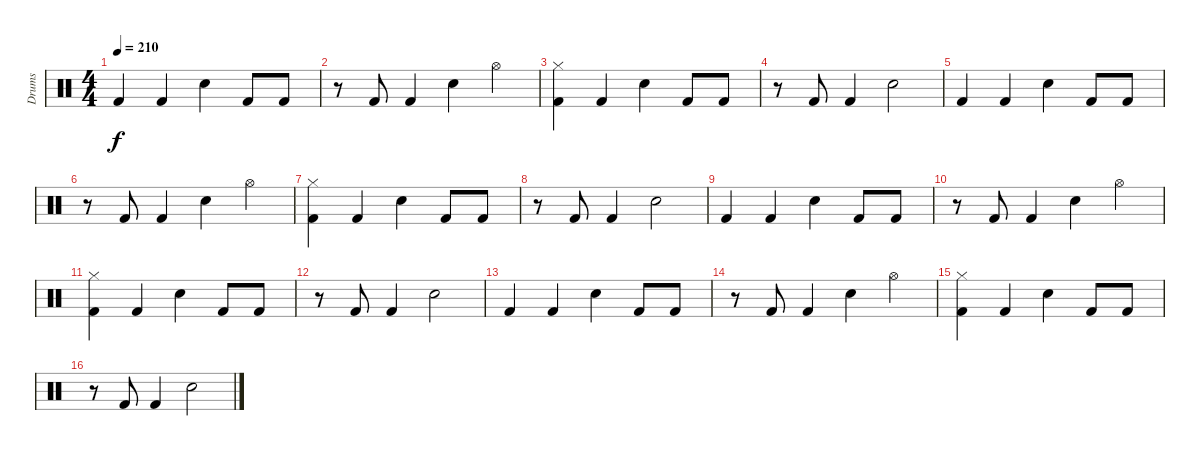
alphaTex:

\track ("Drums" "Drums") {instrument percussion}
\staff {score}
\articulation defaults
\ts (4 4)
\tempo 210
\clef neutral
\ks c "Kick (hit) 2".4{dy f} "Kick (hit) 2".4 "Electric Snare (hit)".4 "Kick (hit) 2".8 "Kick (hit) 2".8
|
r.8 "Kick (hit) 2".8 "Kick (hit) 2".4 "Electric Snare (hit)".4 "Hi-Hat (open)".4 |
("Kick (hit) 2" "Hi-Hat (closed)").4 "Kick (hit) 2".4 "Electric Snare (hit)".4 "Kick (hit) 2".8 "Kick (hit) 2".8 |
r.8 "Kick (hit) 2".8 "Kick (hit) 2".4 "Electric Snare (hit)".2 |
"Kick (hit) 2".4 "Kick (hit) 2".4 "Electric Snare (hit)".4 "Kick (hit) 2".8 "Kick (hit) 2".8 |
r.8 "Kick (hit) 2".8 "Kick (hit) 2".4 "Electric Snare (hit)".4 "Hi-Hat (open)".4 |
("Kick (hit) 2" "Hi-Hat (closed)").4 "Kick (hit) 2".4 "Electric Snare (hit)".4 "Kick (hit) 2".8 "Kick (hit) 2".8 |
r.8 "Kick (hit) 2".8 "Kick (hit) 2".4 "Electric Snare (hit)".2 |
"Kick (hit) 2".4 "Kick (hit) 2".4 "Electric Snare (hit)".4 "Kick (hit) 2".8 "Kick (hit) 2".8 |
r.8 "Kick (hit) 2".8 "Kick (hit) 2".4 "Electric Snare (hit)".4 "Hi-Hat (open)".4 |
("Kick (hit) 2" "Hi-Hat (closed)").4 "Kick (hit) 2".4 "Electric Snare (hit)".4 "Kick (hit) 2".8 "Kick (hit) 2".8 |
r.8 "Kick (hit) 2".8 "Kick (hit) 2".4 "Electric Snare (hit)".2 |
"Kick (hit) 2".4 "Kick (hit) 2".4 "Electric Snare (hit)".4 "Kick (hit) 2".8 "Kick (hit) 2".8 |
r.8 "Kick (hit) 2".8 "Kick (hit) 2".4 "Electric Snare (hit)".4 "Hi-Hat (open)".4 |
("Kick (hit) 2" "Hi-Hat (closed)").4 "Kick (hit) 2".4 "Electric Snare (hit)".4 "Kick (hit) 2".8 "Kick (hit) 2".8 |
r.8 "Kick (hit) 2".8 "Kick (hit) 2".4 "Electric Snare (hit)".2
